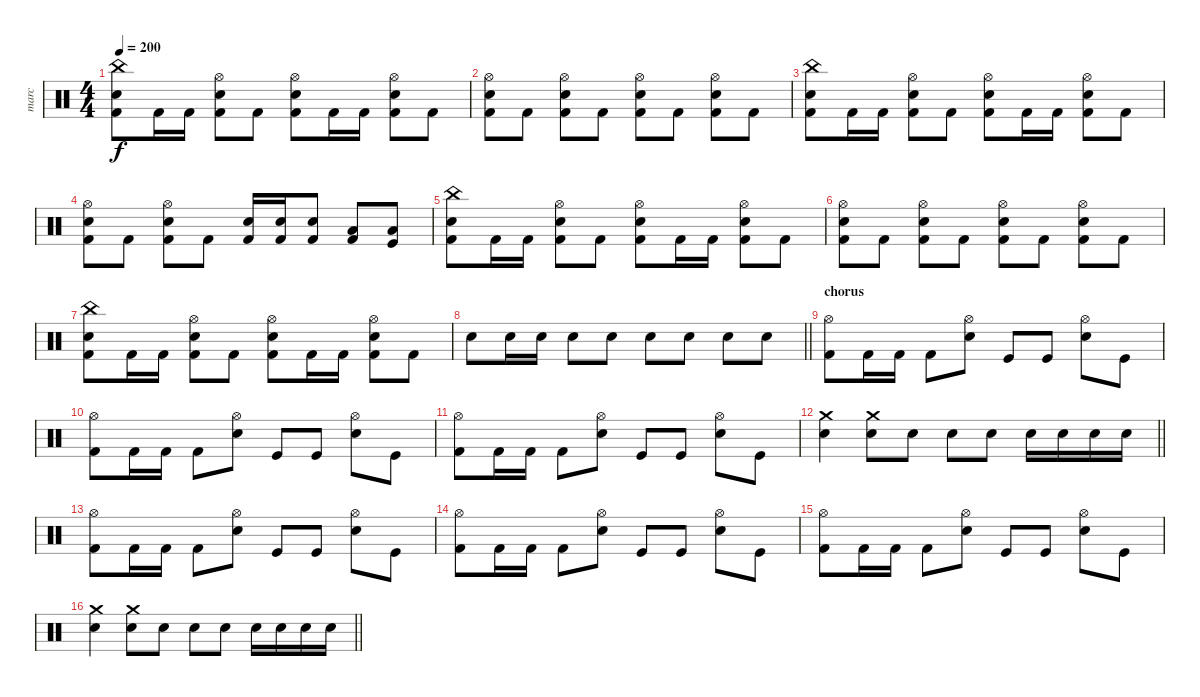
\track ("marc" "marc") {instrument percussion}
\staff {score}
\articulation defaults
\ts (4 4)
\tempo 200
\clef neutral
\ks c
("China (hit)" "Snare (hit) 2" "Kick (hit) 2").8{dy f} "Kick (hit) 2".16 "Kick (hit) 2".16 ("Hi-Hat (open)" "Snare (hit) 2" "Kick (hit) 2").8 "Kick (hit) 2".8 ("Hi-Hat (open)" "Snare (hit) 2" "Kick (hit) 2").8 "Kick (hit) 2".16 "Kick (hit) 2".16 ("Hi-Hat (open)" "Snare (hit) 2" "Kick (hit) 2").8 "Kick (hit) 2".8 |
("Hi-Hat (open)" "Snare (hit) 2" "Kick (hit) 2").8 "Kick (hit) 2".8 ("Hi-Hat (open)" "Snare (hit) 2" "Kick (hit) 2").8 "Kick (hit) 2".8 ("Hi-Hat (open)" "Snare (hit) 2" "Kick (hit) 2").8 "Kick (hit) 2".8 ("Hi-Hat (open)" "Snare (hit) 2" "Kick (hit) 2").8 "Kick (hit) 2".8 |
("China (hit)" "Snare (hit) 2" "Kick (hit) 2").8 "Kick (hit) 2".16 "Kick (hit) 2".16 ("Hi-Hat (open)" "Snare (hit) 2" "Kick (hit) 2").8 "Kick (hit) 2".8 ("Hi-Hat (open)" "Snare (hit) 2" "Kick (hit) 2").8 "Kick (hit) 2".16 "Kick (hit) 2".16 ("Hi-Hat (open)" "Snare (hit) 2" "Kick (hit) 2").8 "Kick (hit) 2".8 |
("Hi-Hat (open)" "Snare (hit) 2" "Kick (hit) 2").8 "Kick (hit) 2".8 ("Hi-Hat (open)" "Snare (hit) 2" "Kick (hit) 2").8 "Kick (hit) 2".8 ("Snare (hit) 2" "Kick (hit) 2").16 ("Snare (hit) 2" "Kick (hit) 2").16 ("Snare (hit) 2" "Kick (hit) 2").8 ("Low Tom (hit)" "Kick (hit) 2").8 ("Low Tom (hit)" "Kick (hit)").8 |
("China (hit)" "Snare (hit) 2" "Kick (hit) 2").8 "Kick (hit) 2".16 "Kick (hit) 2".16 ("Hi-Hat (open)" "Snare (hit) 2" "Kick (hit) 2").8 "Kick (hit) 2".8 ("Hi-Hat (open)" "Snare (hit) 2" "Kick (hit) 2").8 "Kick (hit) 2".16 "Kick (hit) 2".16 ("Hi-Hat (open)" "Snare (hit) 2" "Kick (hit) 2").8 "Kick (hit) 2".8 |
("Hi-Hat (open)" "Snare (hit) 2" "Kick (hit) 2").8 "Kick (hit) 2".8 ("Hi-Hat (open)" "Snare (hit) 2" "Kick (hit) 2").8 "Kick (hit) 2".8 ("Hi-Hat (open)" "Snare (hit) 2" "Kick (hit) 2").8 "Kick (hit) 2".8 ("Hi-Hat (open)" "Snare (hit) 2" "Kick (hit) 2").8 "Kick (hit) 2".8 |
("China (hit)" "Snare (hit) 2" "Kick (hit) 2").8 "Kick (hit) 2".16 "Kick (hit) 2".16 ("Hi-Hat (open)" "Snare (hit) 2" "Kick (hit) 2").8 "Kick (hit) 2".8 ("Hi-Hat (open)" "Snare (hit) 2" "Kick (hit) 2").8 "Kick (hit) 2".16 "Kick (hit) 2".16 ("Hi-Hat (open)" "Snare (hit) 2" "Kick (hit) 2").8 "Kick (hit) 2".8 |
\barLineRight lightlight "Snare (hit) 2".8 "Snare (hit) 2".16 "Snare (hit) 2".16 "Snare (hit) 2".8 "Snare (hit) 2".8 "Snare (hit) 2".8 "Snare (hit) 2".8 "Snare (hit) 2".8 "Snare (hit) 2".8
|
\section ("" "chorus")
("Hi-Hat (open)" "Kick (hit) 2").8 "Kick (hit) 2".16 "Kick (hit) 2".16 "Kick (hit) 2".8 ("Hi-Hat (open)" "Snare (hit) 2").8 "Kick (hit)".8 "Kick (hit)".8 ("Hi-Hat (open)" "Snare (hit) 2").8 "Kick (hit)".8 |
("Hi-Hat (open)" "Kick (hit) 2").8 "Kick (hit) 2".16 "Kick (hit) 2".16 "Kick (hit) 2".8 ("Hi-Hat (open)" "Snare (hit) 2").8 "Kick (hit)".8 "Kick (hit)".8 ("Hi-Hat (open)" "Snare (hit) 2").8 "Kick (hit)".8 |
("Hi-Hat (open)" "Kick (hit) 2").8 "Kick (hit) 2".16 "Kick (hit) 2".16 "Kick (hit) 2".8 ("Hi-Hat (open)" "Snare (hit) 2").8 "Kick (hit)".8 "Kick (hit)".8 ("Hi-Hat (open)" "Snare (hit) 2").8 "Kick (hit)".8 |
\barLineRight lightlight
("Crash medium (hit)" "Snare (hit) 2").4 ("Crash medium (hit)" "Snare (hit) 2").8 "Snare (hit) 2".8 "Snare (hit) 2".8 "Snare (hit) 2".8 "Snare (hit) 2".16 "Snare (hit) 2".16 "Snare (hit) 2".16 "Snare (hit) 2".16 |
("Hi-Hat (open)" "Kick (hit) 2").8 "Kick (hit) 2".16 "Kick (hit) 2".16 "Kick (hit) 2".8 ("Hi-Hat (open)" "Snare (hit) 2").8 "Kick (hit)".8 "Kick (hit)".8 ("Hi-Hat (open)" "Snare (hit) 2").8 "Kick (hit)".8 |
("Hi-Hat (open)" "Kick (hit) 2").8 "Kick (hit) 2".16 "Kick (hit) 2".16 "Kick (hit) 2".8 ("Hi-Hat (open)" "Snare (hit) 2").8 "Kick (hit)".8 "Kick (hit)".8 ("Hi-Hat (open)" "Snare (hit) 2").8 "Kick (hit)".8 |
("Hi-Hat (open)" "Kick (hit) 2").8 "Kick (hit) 2".16 "Kick (hit) 2".16 "Kick (hit) 2".8 ("Hi-Hat (open)" "Snare (hit) 2").8 "Kick (hit)".8 "Kick (hit)".8 ("Hi-Hat (open)" "Snare (hit) 2").8 "Kick (hit)".8 |
\barLineRight lightlight
("Crash medium (hit)" "Snare (hit) 2").4 ("Crash medium (hit)" "Snare (hit) 2").8 "Snare (hit) 2".8 "Snare (hit) 2".8 "Snare (hit) 2".8 "Snare (hit) 2".16 "Snare (hit) 2".16 "Snare (hit) 2".16 "Snare (hit) 2".16
